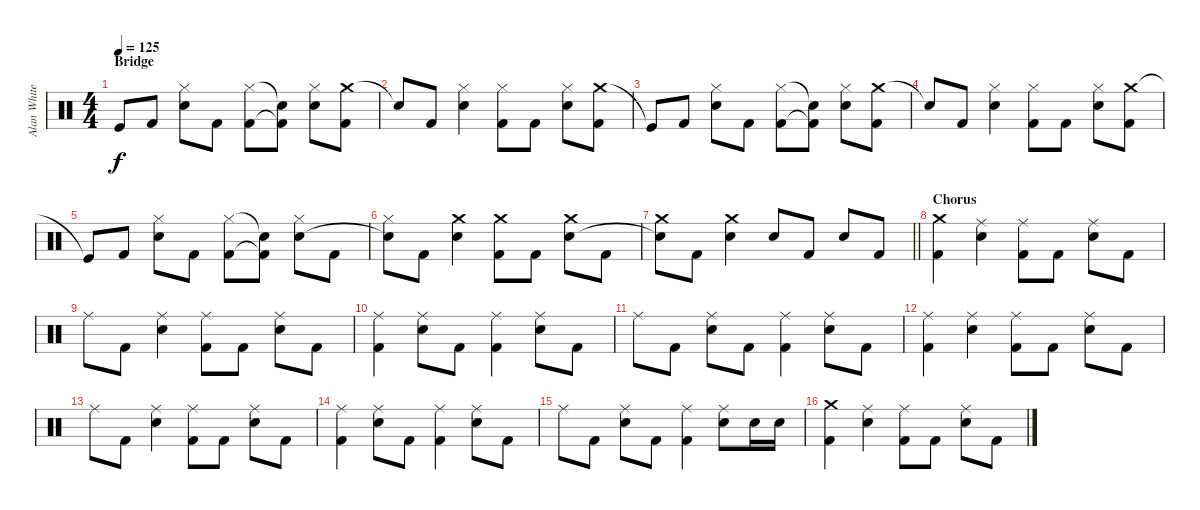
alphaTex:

\track ("Alan White" "Alan White") {instrument percussion}
\staff {score}
\articulation defaults
\ts (4 4)
\section ("" "Bridge")
\tempo 125
\clef neutral
\ks c "Kick (hit)"{t}.8{dy f} "Kick (hit) 2".8
("Hi-Hat (closed)" "Snare (hit) 2").8 "Kick (hit) 2".8 ("Hi-Hat (closed)" "Kick (hit) 2").8 ("Snare (hit)"{t} "Kick (hit) 2"{t}).8 ("Hi-Hat (closed)" "Snare (hit) 2").8 ("Crash medium (hit)" "Kick (hit) 2").8 |
"Snare (hit)"{t}.8 "Kick (hit) 2".8 ("Hi-Hat (closed)" "Snare (hit) 2").4 ("Hi-Hat (closed)" "Kick (hit) 2").8 "Kick (hit) 2".8 ("Hi-Hat (closed)" "Snare (hit) 2").8 ("Crash medium (hit)" "Kick (hit) 2").8 |
"Kick (hit)"{t}.8 "Kick (hit) 2".8 ("Hi-Hat (closed)" "Snare (hit) 2").8 "Kick (hit) 2".8 ("Hi-Hat (closed)" "Kick (hit) 2").8 ("Snare (hit)"{t} "Kick (hit) 2"{t}).8 ("Hi-Hat (closed)" "Snare (hit) 2").8 ("Crash medium (hit)" "Kick (hit) 2").8 |
"Snare (hit)"{t}.8 "Kick (hit) 2".8 ("Hi-Hat (closed)" "Snare (hit) 2").4 ("Hi-Hat (closed)" "Kick (hit) 2").8 "Kick (hit) 2".8 ("Hi-Hat (closed)" "Snare (hit) 2").8 ("Crash medium (hit)" "Kick (hit) 2").8 |
"Kick (hit)"{t}.8 "Kick (hit) 2".8 ("Hi-Hat (closed)" "Snare (hit) 2").8 "Kick (hit) 2".8 ("Hi-Hat (closed)" "Kick (hit) 2").8 ("Snare (hit)"{t} "Kick (hit) 2"{t}).8 ("Hi-Hat (closed)" "Snare (hit) 2").8 "Kick (hit) 2".8 |
("Hi-Hat (closed)" "Snare (hit)"{t}).8 "Kick (hit) 2".8 ("Crash medium (hit)" "Snare (hit) 2").4 ("Crash medium (hit)" "Kick (hit) 2").8 "Kick (hit) 2".8 ("Crash medium (hit)" "Snare (hit) 2").8 "Kick (hit) 2".8 |
\barLineRight lightlight
("Crash medium (hit)" "Snare (hit)"{t}).8 "Kick (hit) 2".8 ("Crash medium (hit)" "Snare (hit) 2").4 "Snare (hit) 2".8 "Kick (hit) 2".8 "Snare (hit) 2".8 "Kick (hit) 2".8 |
\section ("" "Chorus")
("Crash medium (hit)" "Kick (hit) 2").4 ("Ride (middle)" "Snare (hit) 2").4 ("Ride (middle)" "Kick (hit) 2").8 "Kick (hit) 2".8 ("Ride (middle)" "Snare (hit) 2").8 "Kick (hit) 2".8 |
"Ride (middle)".8 "Kick (hit) 2".8 ("Ride (middle)" "Snare (hit) 2").4 ("Ride (middle)" "Kick (hit) 2").8 "Kick (hit) 2".8 ("Ride (middle)" "Snare (hit) 2").8 "Kick (hit) 2".8 |
("Ride (middle)" "Kick (hit) 2").4 ("Ride (middle)" "Snare (hit) 2").8 "Kick (hit) 2".8 ("Ride (middle)" "Kick (hit) 2").4 ("Ride (middle)" "Snare (hit) 2").8 "Kick (hit) 2".8 |
"Ride (middle)".8 "Kick (hit) 2".8 ("Ride (middle)" "Snare (hit) 2").8 "Kick (hit) 2".8 ("Ride (middle)" "Kick (hit) 2").4 ("Ride (middle)" "Snare (hit) 2").8 "Kick (hit) 2".8 |
("Ride (middle)" "Kick (hit) 2").4 ("Ride (middle)" "Snare (hit) 2").4 ("Ride (middle)" "Kick (hit) 2").8 "Kick (hit) 2".8 ("Ride (middle)" "Snare (hit) 2").8 "Kick (hit) 2".8 |
"Ride (middle)".8 "Kick (hit) 2".8 ("Ride (middle)" "Snare (hit) 2").4 ("Ride (middle)" "Kick (hit) 2").8 "Kick (hit) 2".8 ("Ride (middle)" "Snare (hit) 2").8 "Kick (hit) 2".8 |
("Ride (middle)" "Kick (hit) 2").4 ("Ride (middle)" "Snare (hit) 2").8 "Kick (hit) 2".8 ("Ride (middle)" "Kick (hit) 2").4 ("Ride (middle)" "Snare (hit) 2").8 "Kick (hit) 2".8 |
"Ride (middle)".8 "Kick (hit) 2".8 ("Ride (middle)" "Snare (hit) 2").8 "Kick (hit) 2".8 ("Ride (middle)" "Kick (hit) 2").4 ("Ride (middle)" "Snare (hit) 2").8 "Snare (hit) 2".16 "Snare (hit) 2".16 |
("Crash medium (hit)" "Kick (hit) 2").4 ("Ride (middle)" "Snare (hit) 2").4 ("Ride (middle)" "Kick (hit) 2").8 "Kick (hit) 2".8 ("Ride (middle)" "Snare (hit) 2").8 "Kick (hit) 2".8
